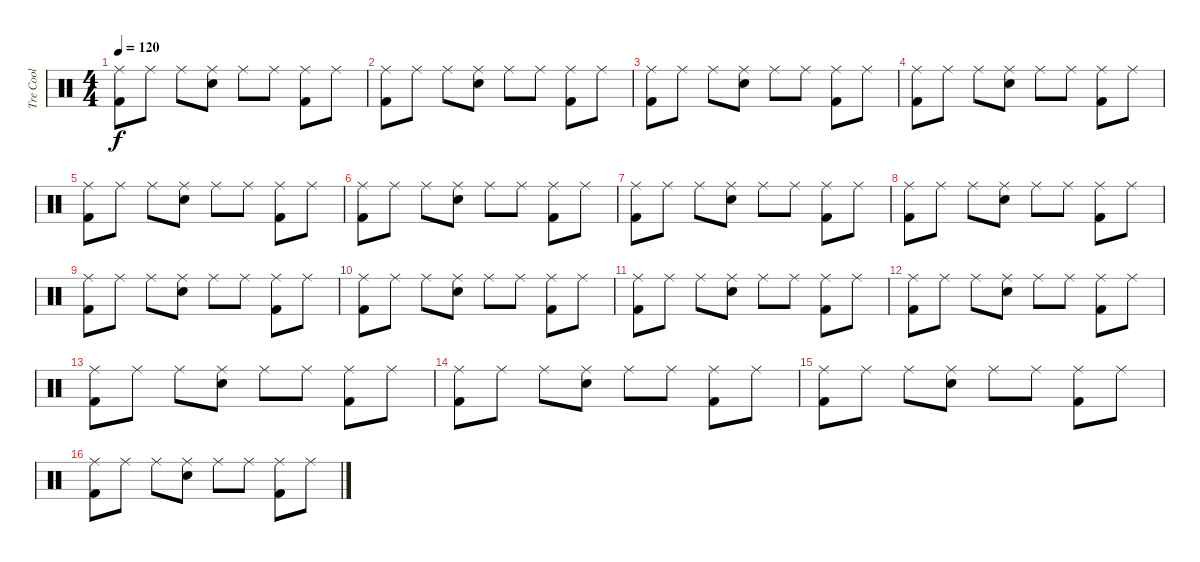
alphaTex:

\track ("Tre Cool" "Tre Cool") {instrument percussion}
\staff {score}
\articulation defaults
\ts (4 4)
\tempo 120
\clef neutral
\ks c
("Ride (middle)" "Kick (hit) 2").8{dy f} "Ride (middle)".8 "Ride (middle)".8 ("Ride (middle)" "Snare (hit) 2").8 "Ride (middle)".8 "Ride (middle)".8 ("Ride (middle)" "Kick (hit) 2").8 "Ride (middle)".8 |
("Ride (middle)" "Kick (hit) 2").8 "Ride (middle)".8 "Ride (middle)".8 ("Ride (middle)" "Snare (hit) 2").8 "Ride (middle)".8 "Ride (middle)".8 ("Ride (middle)" "Kick (hit) 2").8 "Ride (middle)".8 |
("Ride (middle)" "Kick (hit) 2").8 "Ride (middle)".8 "Ride (middle)".8 ("Ride (middle)" "Snare (hit) 2").8 "Ride (middle)".8 "Ride (middle)".8 ("Ride (middle)" "Kick (hit) 2").8 "Ride (middle)".8 |
("Ride (middle)" "Kick (hit) 2").8 "Ride (middle)".8 "Ride (middle)".8 ("Ride (middle)" "Snare (hit) 2").8 "Ride (middle)".8 "Ride (middle)".8 ("Ride (middle)" "Kick (hit) 2").8 "Ride (middle)".8 |
("Ride (middle)" "Kick (hit) 2").8 "Ride (middle)".8 "Ride (middle)".8 ("Ride (middle)" "Snare (hit) 2").8 "Ride (middle)".8 "Ride (middle)".8 ("Ride (middle)" "Kick (hit) 2").8 "Ride (middle)".8 |
("Ride (middle)" "Kick (hit) 2").8 "Ride (middle)".8 "Ride (middle)".8 ("Ride (middle)" "Snare (hit) 2").8 "Ride (middle)".8 "Ride (middle)".8 ("Ride (middle)" "Kick (hit) 2").8 "Ride (middle)".8 |
("Ride (middle)" "Kick (hit) 2").8 "Ride (middle)".8 "Ride (middle)".8 ("Ride (middle)" "Snare (hit) 2").8 "Ride (middle)".8 "Ride (middle)".8 ("Ride (middle)" "Kick (hit) 2").8 "Ride (middle)".8 |
("Ride (middle)" "Kick (hit) 2").8 "Ride (middle)".8 "Ride (middle)".8 ("Ride (middle)" "Snare (hit) 2").8 "Ride (middle)".8 "Ride (middle)".8 ("Ride (middle)" "Kick (hit) 2").8 "Ride (middle)".8 |
("Ride (middle)" "Kick (hit) 2").8 "Ride (middle)".8 "Ride (middle)".8 ("Ride (middle)" "Snare (hit) 2").8 "Ride (middle)".8 "Ride (middle)".8 ("Ride (middle)" "Kick (hit) 2").8 "Ride (middle)".8 |
("Ride (middle)" "Kick (hit) 2").8 "Ride (middle)".8 "Ride (middle)".8 ("Ride (middle)" "Snare (hit) 2").8 "Ride (middle)".8 "Ride (middle)".8 ("Ride (middle)" "Kick (hit) 2").8 "Ride (middle)".8 |
("Ride (middle)" "Kick (hit) 2").8 "Ride (middle)".8 "Ride (middle)".8 ("Ride (middle)" "Snare (hit) 2").8 "Ride (middle)".8 "Ride (middle)".8 ("Ride (middle)" "Kick (hit) 2").8 "Ride (middle)".8 |
("Ride (middle)" "Kick (hit) 2").8 "Ride (middle)".8 "Ride (middle)".8 ("Ride (middle)" "Snare (hit) 2").8 "Ride (middle)".8 "Ride (middle)".8 ("Ride (middle)" "Kick (hit) 2").8 "Ride (middle)".8 |
("Ride (middle)" "Kick (hit) 2").8 "Ride (middle)".8 "Ride (middle)".8 ("Ride (middle)" "Snare (hit) 2").8 "Ride (middle)".8 "Ride (middle)".8 ("Ride (middle)" "Kick (hit) 2").8 "Ride (middle)".8 |
("Ride (middle)" "Kick (hit) 2").8 "Ride (middle)".8 "Ride (middle)".8 ("Ride (middle)" "Snare (hit) 2").8 "Ride (middle)".8 "Ride (middle)".8 ("Ride (middle)" "Kick (hit) 2").8 "Ride (middle)".8 |
("Ride (middle)" "Kick (hit) 2").8 "Ride (middle)".8 "Ride (middle)".8 ("Ride (middle)" "Snare (hit) 2").8 "Ride (middle)".8 "Ride (middle)".8 ("Ride (middle)" "Kick (hit) 2").8 "Ride (middle)".8 |
("Ride (middle)" "Kick (hit) 2").8 "Ride (middle)".8 "Ride (middle)".8 ("Ride (middle)" "Snare (hit) 2").8 "Ride (middle)".8 "Ride (middle)".8 ("Ride (middle)" "Kick (hit) 2").8 "Ride (middle)".8
